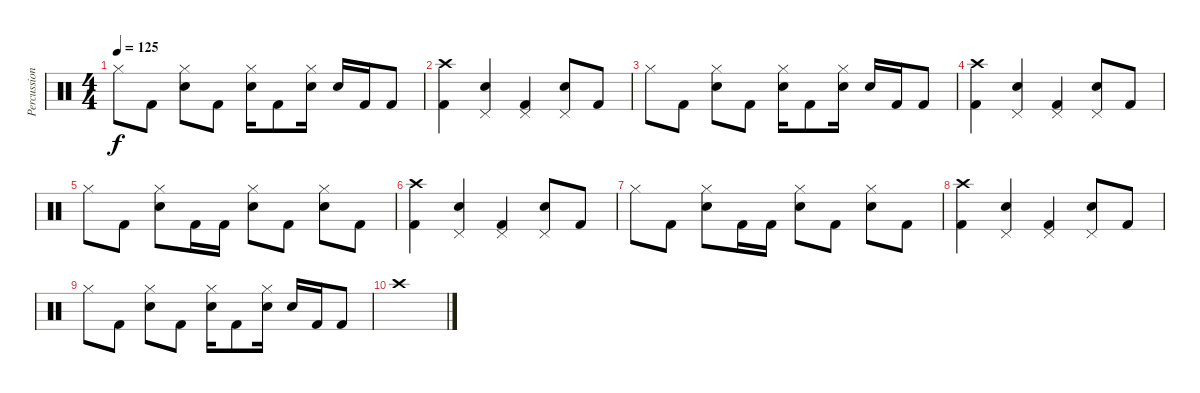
\track ("Percussioni" "Percussion") {instrument percussion}
\staff {score}
\articulation defaults
\ts (4 4)
\tempo 125
\clef neutral
\ks c "Hi-Hat (closed)".8{dy f} "Kick (hit) 2".8
("Hi-Hat (closed)" "Snare (hit) 2").8 "Kick (hit) 2".8 ("Hi-Hat (closed)" "Snare (hit) 2").16 "Kick (hit) 2".8 ("Hi-Hat (closed)" "Snare (hit) 2").16 "Snare (hit) 2".16 "Kick (hit) 2".16 "Kick (hit) 2".8 |
("Crash high (hit)" "Kick (hit) 2").4 ("Pedal Hi-Hat (hit)" "Snare (hit) 2").4 ("Pedal Hi-Hat (hit)" "Kick (hit) 2").4 ("Pedal Hi-Hat (hit)" "Snare (hit) 2").8 "Kick (hit) 2".8 |
"Hi-Hat (closed)".8 "Kick (hit) 2".8 ("Hi-Hat (closed)" "Snare (hit) 2").8 "Kick (hit) 2".8 ("Hi-Hat (closed)" "Snare (hit) 2").16 "Kick (hit) 2".8 ("Hi-Hat (closed)" "Snare (hit) 2").16 "Snare (hit) 2".16 "Kick (hit) 2".16 "Kick (hit) 2".8 |
("Crash high (hit)" "Kick (hit) 2").4 ("Pedal Hi-Hat (hit)" "Snare (hit) 2").4 ("Pedal Hi-Hat (hit)" "Kick (hit) 2").4 ("Pedal Hi-Hat (hit)" "Snare (hit) 2").8 "Kick (hit) 2".8 |
"Hi-Hat (closed)".8 "Kick (hit) 2".8 ("Hi-Hat (closed)" "Snare (hit) 2").8 "Kick (hit) 2".16 "Kick (hit) 2".16 ("Hi-Hat (closed)" "Snare (hit) 2").8 "Kick (hit) 2".8 ("Hi-Hat (closed)" "Snare (hit) 2").8 "Kick (hit) 2".8 |
("Crash high (hit)" "Kick (hit) 2").4 ("Pedal Hi-Hat (hit)" "Snare (hit) 2").4 ("Pedal Hi-Hat (hit)" "Kick (hit) 2").4 ("Pedal Hi-Hat (hit)" "Snare (hit) 2").8 "Kick (hit) 2".8 |
"Hi-Hat (closed)".8 "Kick (hit) 2".8 ("Hi-Hat (closed)" "Snare (hit) 2").8 "Kick (hit) 2".16 "Kick (hit) 2".16 ("Hi-Hat (closed)" "Snare (hit) 2").8 "Kick (hit) 2".8 ("Hi-Hat (closed)" "Snare (hit) 2").8 "Kick (hit) 2".8 |
("Crash high (hit)" "Kick (hit) 2").4 ("Pedal Hi-Hat (hit)" "Snare (hit) 2").4 ("Pedal Hi-Hat (hit)" "Kick (hit) 2").4 ("Pedal Hi-Hat (hit)" "Snare (hit) 2").8 "Kick (hit) 2".8 |
"Hi-Hat (closed)".8 "Kick (hit) 2".8 ("Hi-Hat (closed)" "Snare (hit) 2").8 "Kick (hit) 2".8 ("Hi-Hat (closed)" "Snare (hit) 2").16 "Kick (hit) 2".8 ("Hi-Hat (closed)" "Snare (hit) 2").16 "Snare (hit) 2".16 "Kick (hit) 2".16 "Kick (hit) 2".8 |
"Crash high (hit)".1
